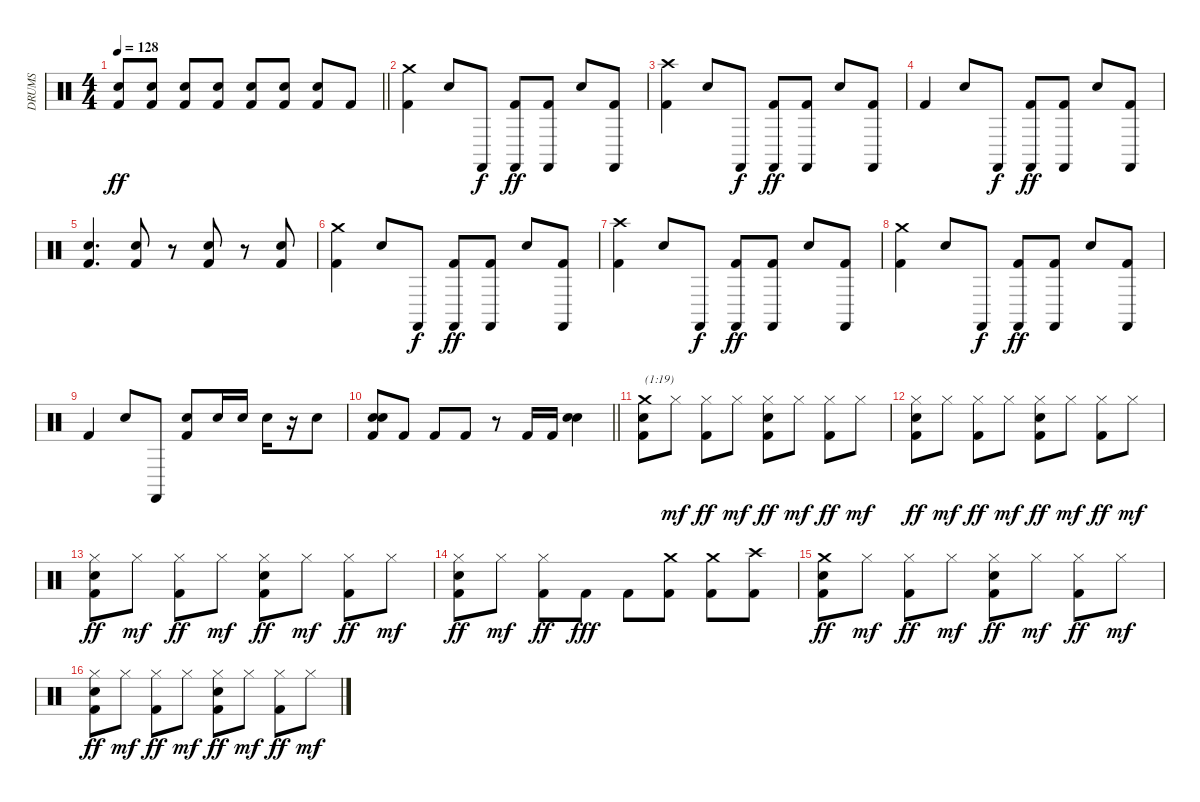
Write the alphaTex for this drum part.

\track ("DRUMS" "DRUMS") {instrument percussion}
\staff {score}
\articulation defaults
\ts (4 4)
\tempo 128
\clef neutral
\barLineRight lightlight
\ks c
("Snare (hit) 2" "Kick (hit) 2").8{dy ff} ("Snare (hit) 2" "Kick (hit) 2").8 ("Snare (hit) 2" "Kick (hit) 2").8 ("Snare (hit) 2" "Kick (hit) 2").8 ("Snare (hit) 2" "Kick (hit) 2").8 ("Snare (hit) 2" "Kick (hit) 2").8 ("Snare (hit) 2" "Kick (hit) 2").8 "Kick (hit) 2".8 |
("Crash medium (hit)" "Kick (hit) 2").4 "Snare (hit) 2".8 "Castanets (hit)".8{dy f} ("Castanets (hit)" "Kick (hit) 2").8{dy ff} ("Castanets (hit)" "Kick (hit) 2").8 "Snare (hit) 2".8 ("Castanets (hit)" "Kick (hit) 2").8 |
("Crash high (hit)" "Kick (hit) 2").4 "Snare (hit) 2".8 "Castanets (hit)".8{dy f} ("Castanets (hit)" "Kick (hit) 2").8{dy ff} ("Castanets (hit)" "Kick (hit) 2").8 "Snare (hit) 2".8 ("Castanets (hit)" "Kick (hit) 2").8 |
"Kick (hit) 2".4 "Snare (hit) 2".8 "Castanets (hit)".8{dy f} ("Castanets (hit)" "Kick (hit) 2").8{dy ff} ("Castanets (hit)" "Kick (hit) 2").8 "Snare (hit) 2".8 ("Castanets (hit)" "Kick (hit) 2").8 |
("Snare (hit) 2" "Kick (hit) 2").4{d} ("Snare (hit) 2" "Kick (hit) 2").8 r.8 ("Snare (hit) 2" "Kick (hit) 2").8 r.8 ("Snare (hit) 2" "Kick (hit) 2").8 |
("Crash medium (hit)" "Kick (hit) 2").4 "Snare (hit) 2".8 "Castanets (hit)".8{dy f} ("Castanets (hit)" "Kick (hit) 2").8{dy ff} ("Castanets (hit)" "Kick (hit) 2").8 "Snare (hit) 2".8 ("Castanets (hit)" "Kick (hit) 2").8 |
("Crash high (hit)" "Kick (hit) 2").4 "Snare (hit) 2".8 "Castanets (hit)".8{dy f} ("Castanets (hit)" "Kick (hit) 2").8{dy ff} ("Castanets (hit)" "Kick (hit) 2").8 "Snare (hit) 2".8 ("Castanets (hit)" "Kick (hit) 2").8 |
("Crash medium (hit)" "Kick (hit) 2").4 "Snare (hit) 2".8 "Castanets (hit)".8{dy f} ("Castanets (hit)" "Kick (hit) 2").8{dy ff} ("Castanets (hit)" "Kick (hit) 2").8 "Snare (hit) 2".8 ("Castanets (hit)" "Kick (hit) 2").8 |
"Kick (hit) 2".4 "Snare (hit) 2".8 "Castanets (hit)".8 ("Snare (hit) 2" "Kick (hit) 2").8 "Snare (hit) 2".16 "Snare (hit) 2".16 "Snare (hit) 2".16 r.16 "Snare (hit) 2".8 |
\barLineRight lightlight
("Electric Snare (hit)" "Snare (hit) 2" "Kick (hit) 2").8 "Kick (hit) 2".8 "Kick (hit) 2".8 "Kick (hit) 2".8 r.8 "Kick (hit) 2".16 "Kick (hit) 2".16 ("Electric Snare (hit)" "Snare (hit) 2").4 |
("Crash medium (hit)" "Snare (hit) 2" "Kick (hit) 2").8{txt "(1:19)"} "Hi-Hat (closed)".8{dy mf} ("Hi-Hat (closed)" "Kick (hit) 2").8{dy ff} "Hi-Hat (closed)".8{dy mf} ("Hi-Hat (closed)" "Snare (hit) 2" "Kick (hit) 2").8{dy ff} "Hi-Hat (closed)".8{dy mf} ("Hi-Hat (closed)" "Kick (hit) 2").8{dy ff} "Hi-Hat (closed)".8{dy mf} |
("Hi-Hat (closed)" "Snare (hit) 2" "Kick (hit) 2").8{dy ff} "Hi-Hat (closed)".8{dy mf} ("Hi-Hat (closed)" "Kick (hit) 2").8{dy ff} "Hi-Hat (closed)".8{dy mf} ("Hi-Hat (closed)" "Snare (hit) 2" "Kick (hit) 2").8{dy ff} "Hi-Hat (closed)".8{dy mf} ("Hi-Hat (closed)" "Kick (hit) 2").8{dy ff} "Hi-Hat (closed)".8{dy mf} |
("Hi-Hat (closed)" "Snare (hit) 2" "Kick (hit) 2").8{dy ff} "Hi-Hat (closed)".8{dy mf} ("Hi-Hat (closed)" "Kick (hit) 2").8{dy ff} "Hi-Hat (closed)".8{dy mf} ("Hi-Hat (closed)" "Snare (hit) 2" "Kick (hit) 2").8{dy ff} "Hi-Hat (closed)".8{dy mf} ("Hi-Hat (closed)" "Kick (hit) 2").8{dy ff} "Hi-Hat (closed)".8{dy mf} |
("Hi-Hat (closed)" "Snare (hit) 2" "Kick (hit) 2").8{dy ff} "Hi-Hat (closed)".8{dy mf} ("Hi-Hat (closed)" "Kick (hit) 2").8{dy ff} "Kick (hit) 2".8{dy fff} "Kick (hit) 2".8 ("Crash medium (hit)" "Kick (hit) 2").8 ("Crash medium (hit)" "Kick (hit) 2").8 ("Crash high (hit)" "Kick (hit) 2").8 |
("Crash medium (hit)" "Snare (hit) 2" "Kick (hit) 2").8{dy ff} "Hi-Hat (closed)".8{dy mf} ("Hi-Hat (closed)" "Kick (hit) 2").8{dy ff} "Hi-Hat (closed)".8{dy mf} ("Hi-Hat (closed)" "Snare (hit) 2" "Kick (hit) 2").8{dy ff} "Hi-Hat (closed)".8{dy mf} ("Hi-Hat (closed)" "Kick (hit) 2").8{dy ff} "Hi-Hat (closed)".8{dy mf} |
("Hi-Hat (closed)" "Snare (hit) 2" "Kick (hit) 2").8{dy ff} "Hi-Hat (closed)".8{dy mf} ("Hi-Hat (closed)" "Kick (hit) 2").8{dy ff} "Hi-Hat (closed)".8{dy mf} ("Hi-Hat (closed)" "Snare (hit) 2" "Kick (hit) 2").8{dy ff} "Hi-Hat (closed)".8{dy mf} ("Hi-Hat (closed)" "Kick (hit) 2").8{dy ff} "Hi-Hat (closed)".8{dy mf}
